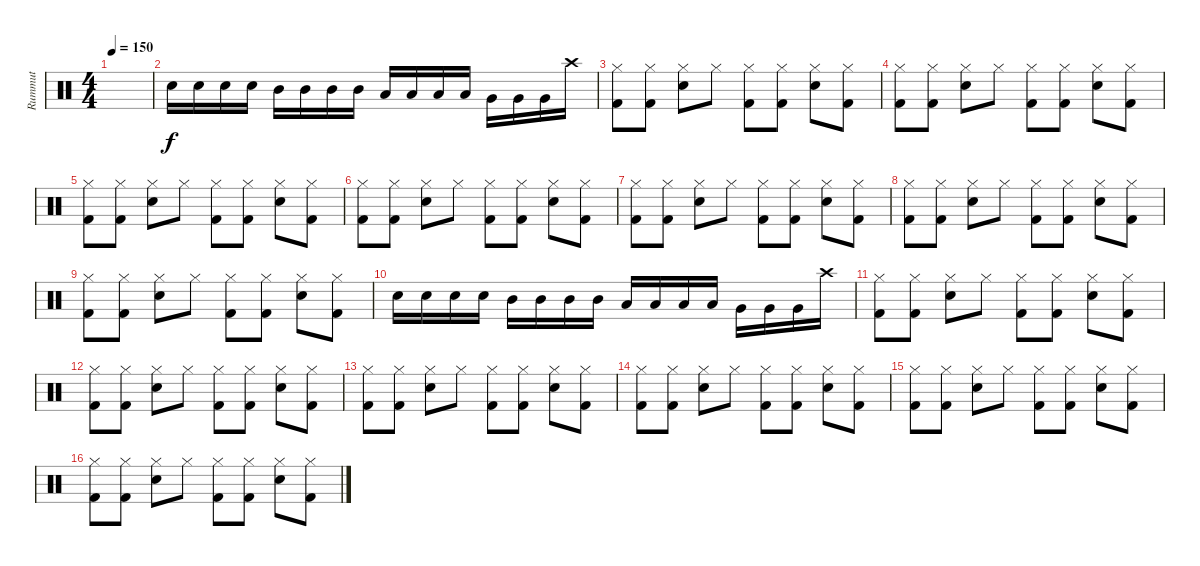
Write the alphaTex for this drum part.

\track ("Rummut" "Rummut") {instrument percussion}
\staff {score}
\articulation defaults
\ts (4 4)
\tempo 150
\clef neutral
\ks c
|
"Electric Snare (hit)".16 "Electric Snare (hit)".16 "Electric Snare (hit)".16 "Electric Snare (hit)".16 "Mid Tom (hit)".16 "Mid Tom (hit)".16 "Mid Tom (hit)".16 "Mid Tom (hit)".16 "Low Tom (hit)".16 "Low Tom (hit)".16 "Low Tom (hit)".16 "Low Tom (hit)".16 "Very Low Tom (hit)".16 "Very Low Tom (hit)".16 "Very Low Tom (hit)".16 "Crash high (hit)".16 |
("Hi-Hat (closed)" "Kick (hit) 2").8 ("Hi-Hat (closed)" "Kick (hit) 2").8 ("Electric Snare (hit)" "Hi-Hat (closed)").8 "Hi-Hat (closed)".8 ("Hi-Hat (closed)" "Kick (hit) 2").8 ("Hi-Hat (closed)" "Kick (hit) 2").8 ("Electric Snare (hit)" "Hi-Hat (closed)").8 ("Hi-Hat (closed)" "Kick (hit) 2").8 |
("Hi-Hat (closed)" "Kick (hit) 2").8 ("Hi-Hat (closed)" "Kick (hit) 2").8 ("Electric Snare (hit)" "Hi-Hat (closed)").8 "Hi-Hat (closed)".8 ("Hi-Hat (closed)" "Kick (hit) 2").8 ("Hi-Hat (closed)" "Kick (hit) 2").8 ("Electric Snare (hit)" "Hi-Hat (closed)").8 ("Hi-Hat (closed)" "Kick (hit) 2").8 |
("Hi-Hat (closed)" "Kick (hit) 2").8 ("Hi-Hat (closed)" "Kick (hit) 2").8 ("Electric Snare (hit)" "Hi-Hat (closed)").8 "Hi-Hat (closed)".8 ("Hi-Hat (closed)" "Kick (hit) 2").8 ("Hi-Hat (closed)" "Kick (hit) 2").8 ("Electric Snare (hit)" "Hi-Hat (closed)").8 ("Hi-Hat (closed)" "Kick (hit) 2").8 |
("Hi-Hat (closed)" "Kick (hit) 2").8 ("Hi-Hat (closed)" "Kick (hit) 2").8 ("Electric Snare (hit)" "Hi-Hat (closed)").8 "Hi-Hat (closed)".8 ("Hi-Hat (closed)" "Kick (hit) 2").8 ("Hi-Hat (closed)" "Kick (hit) 2").8 ("Electric Snare (hit)" "Hi-Hat (closed)").8 ("Hi-Hat (closed)" "Kick (hit) 2").8 |
("Hi-Hat (closed)" "Kick (hit) 2").8 ("Hi-Hat (closed)" "Kick (hit) 2").8 ("Electric Snare (hit)" "Hi-Hat (closed)").8 "Hi-Hat (closed)".8 ("Hi-Hat (closed)" "Kick (hit) 2").8 ("Hi-Hat (closed)" "Kick (hit) 2").8 ("Electric Snare (hit)" "Hi-Hat (closed)").8 ("Hi-Hat (closed)" "Kick (hit) 2").8 |
("Hi-Hat (closed)" "Kick (hit) 2").8 ("Hi-Hat (closed)" "Kick (hit) 2").8 ("Electric Snare (hit)" "Hi-Hat (closed)").8 "Hi-Hat (closed)".8 ("Hi-Hat (closed)" "Kick (hit) 2").8 ("Hi-Hat (closed)" "Kick (hit) 2").8 ("Electric Snare (hit)" "Hi-Hat (closed)").8 ("Hi-Hat (closed)" "Kick (hit) 2").8 |
("Hi-Hat (closed)" "Kick (hit) 2").8 ("Hi-Hat (closed)" "Kick (hit) 2").8 ("Electric Snare (hit)" "Hi-Hat (closed)").8 "Hi-Hat (closed)".8 ("Hi-Hat (closed)" "Kick (hit) 2").8 ("Hi-Hat (closed)" "Kick (hit) 2").8 ("Electric Snare (hit)" "Hi-Hat (closed)").8 ("Hi-Hat (closed)" "Kick (hit) 2").8 |
"Electric Snare (hit)".16 "Electric Snare (hit)".16 "Electric Snare (hit)".16 "Electric Snare (hit)".16 "Mid Tom (hit)".16 "Mid Tom (hit)".16 "Mid Tom (hit)".16 "Mid Tom (hit)".16 "Low Tom (hit)".16 "Low Tom (hit)".16 "Low Tom (hit)".16 "Low Tom (hit)".16 "Very Low Tom (hit)".16 "Very Low Tom (hit)".16 "Very Low Tom (hit)".16 "Crash high (hit)".16 |
("Hi-Hat (closed)" "Kick (hit) 2").8 ("Hi-Hat (closed)" "Kick (hit) 2").8 ("Electric Snare (hit)" "Hi-Hat (closed)").8 "Hi-Hat (closed)".8 ("Hi-Hat (closed)" "Kick (hit) 2").8 ("Hi-Hat (closed)" "Kick (hit) 2").8 ("Electric Snare (hit)" "Hi-Hat (closed)").8 ("Hi-Hat (closed)" "Kick (hit) 2").8 |
("Hi-Hat (closed)" "Kick (hit) 2").8 ("Hi-Hat (closed)" "Kick (hit) 2").8 ("Electric Snare (hit)" "Hi-Hat (closed)").8 "Hi-Hat (closed)".8 ("Hi-Hat (closed)" "Kick (hit) 2").8 ("Hi-Hat (closed)" "Kick (hit) 2").8 ("Electric Snare (hit)" "Hi-Hat (closed)").8 ("Hi-Hat (closed)" "Kick (hit) 2").8 |
("Hi-Hat (closed)" "Kick (hit) 2").8 ("Hi-Hat (closed)" "Kick (hit) 2").8 ("Electric Snare (hit)" "Hi-Hat (closed)").8 "Hi-Hat (closed)".8 ("Hi-Hat (closed)" "Kick (hit) 2").8 ("Hi-Hat (closed)" "Kick (hit) 2").8 ("Electric Snare (hit)" "Hi-Hat (closed)").8 ("Hi-Hat (closed)" "Kick (hit) 2").8 |
("Hi-Hat (closed)" "Kick (hit) 2").8 ("Hi-Hat (closed)" "Kick (hit) 2").8 ("Electric Snare (hit)" "Hi-Hat (closed)").8 "Hi-Hat (closed)".8 ("Hi-Hat (closed)" "Kick (hit) 2").8 ("Hi-Hat (closed)" "Kick (hit) 2").8 ("Electric Snare (hit)" "Hi-Hat (closed)").8 ("Hi-Hat (closed)" "Kick (hit) 2").8 |
("Hi-Hat (closed)" "Kick (hit) 2").8 ("Hi-Hat (closed)" "Kick (hit) 2").8 ("Electric Snare (hit)" "Hi-Hat (closed)").8 "Hi-Hat (closed)".8 ("Hi-Hat (closed)" "Kick (hit) 2").8 ("Hi-Hat (closed)" "Kick (hit) 2").8 ("Electric Snare (hit)" "Hi-Hat (closed)").8 ("Hi-Hat (closed)" "Kick (hit) 2").8 |
("Hi-Hat (closed)" "Kick (hit) 2").8 ("Hi-Hat (closed)" "Kick (hit) 2").8 ("Electric Snare (hit)" "Hi-Hat (closed)").8 "Hi-Hat (closed)".8 ("Hi-Hat (closed)" "Kick (hit) 2").8 ("Hi-Hat (closed)" "Kick (hit) 2").8 ("Electric Snare (hit)" "Hi-Hat (closed)").8 ("Hi-Hat (closed)" "Kick (hit) 2").8
